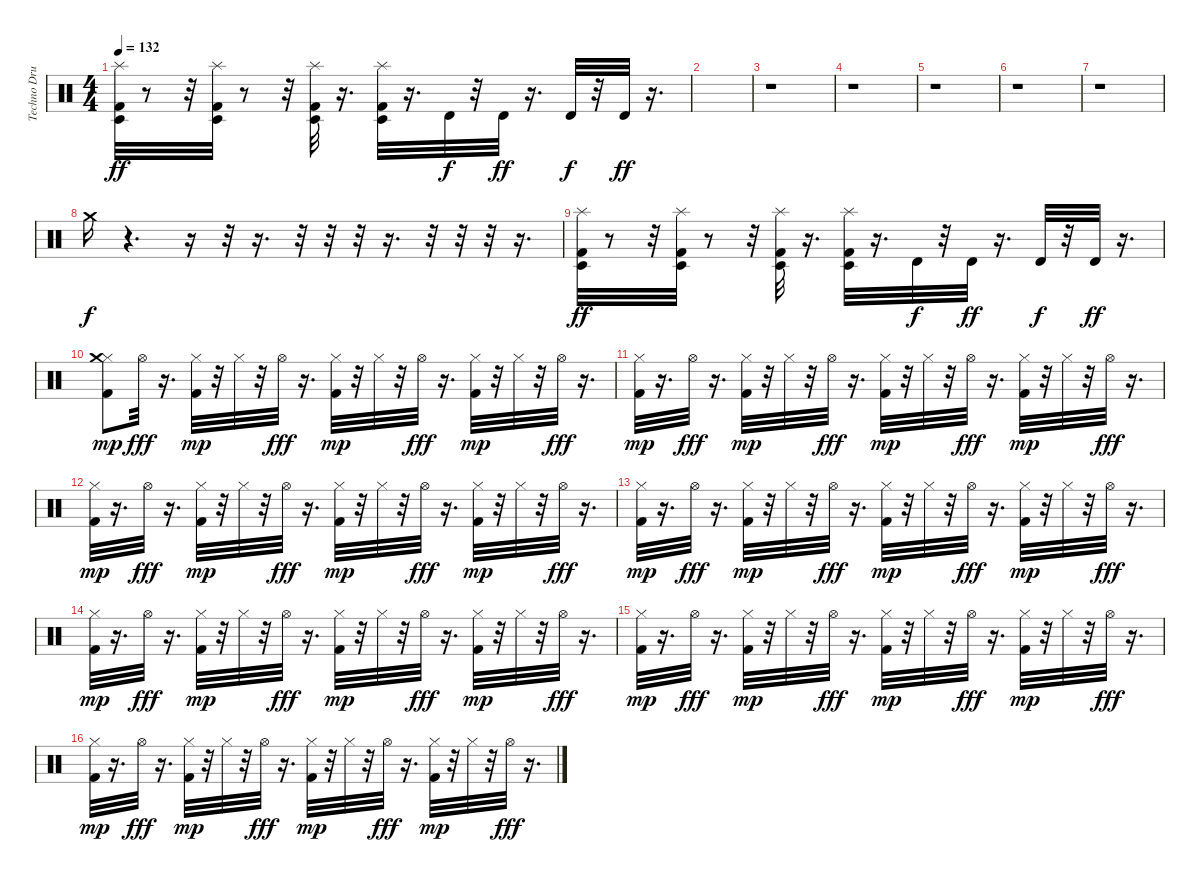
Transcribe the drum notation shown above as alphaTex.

\track ("Techno Drums" "Techno Dru") {instrument percussion}
\staff {score}
\articulation defaults
\ts (4 4)
\tempo 132
\clef neutral
\ks c
("Kick (hit) 2" "Timbale low (hit)" "Splash (hit)").32{dy ff} r.8 r.32 ("Kick (hit) 2" "Timbale low (hit)" "Splash (hit)").32 r.8 r.32 ("Kick (hit) 2" "Timbale low (hit)" "Splash (hit)").32 r.16{d} ("Timbale low (hit)" "Splash (hit)" "Kick (hit) 2").32 r.16{d} "Timbale high (hit)".32{dy f} r.32 "Timbale high (hit)".32{dy ff} r.16{d} "Timbale high (hit)".32{dy f} r.32 "Timbale high (hit)".32{dy ff} r.16{d} |
|
r.1 |
r.1 |
r.1 |
r.1 |
r.1 |
"Crash medium (hit)".16{dy f} r.4{d} r.16 r.32 r.16{d} r.32 r.32 r.32 r.16{d} r.32 r.32 r.32 r.16{d} |
("Kick (hit) 2" "Timbale low (hit)" "Splash (hit)").32{dy ff} r.8 r.32 ("Kick (hit) 2" "Timbale low (hit)" "Splash (hit)").32 r.8 r.32 ("Kick (hit) 2" "Timbale low (hit)" "Splash (hit)").32 r.16{d} ("Timbale low (hit)" "Splash (hit)" "Kick (hit) 2").32 r.16{d} "Timbale high (hit)".32{dy f} r.32 "Timbale high (hit)".32{dy ff} r.16{d} "Timbale high (hit)".32{dy f} r.32 "Timbale high (hit)".32{dy ff} r.16{d} |
("Kick (hit) 2" "Hi-Hat (closed)" "Crash medium (hit)").8{dy mp} "Hi-Hat (open)".32{dy fff} r.16{d} ("Kick (hit) 2" "Hi-Hat (closed)").32{dy mp} r.32 "Hi-Hat (closed)".32 r.32 "Hi-Hat (open)".32{dy fff} r.16{d} ("Kick (hit) 2" "Hi-Hat (closed)").32{dy mp} r.32 "Hi-Hat (closed)".32 r.32 "Hi-Hat (open)".32{dy fff} r.16{d} ("Kick (hit) 2" "Hi-Hat (closed)").32{dy mp} r.32 "Hi-Hat (closed)".32 r.32 "Hi-Hat (open)".32{dy fff} r.16{d} |
("Kick (hit) 2" "Hi-Hat (closed)").32{dy mp} r.16{d} "Hi-Hat (open)".32{dy fff} r.16{d} ("Kick (hit) 2" "Hi-Hat (closed)").32{dy mp} r.32 "Hi-Hat (closed)".32 r.32 "Hi-Hat (open)".32{dy fff} r.16{d} ("Kick (hit) 2" "Hi-Hat (closed)").32{dy mp} r.32 "Hi-Hat (closed)".32 r.32 "Hi-Hat (open)".32{dy fff} r.16{d} ("Kick (hit) 2" "Hi-Hat (closed)").32{dy mp} r.32 "Hi-Hat (closed)".32 r.32 "Hi-Hat (open)".32{dy fff} r.16{d} |
("Kick (hit) 2" "Hi-Hat (closed)").32{dy mp} r.16{d} "Hi-Hat (open)".32{dy fff} r.16{d} ("Kick (hit) 2" "Hi-Hat (closed)").32{dy mp} r.32 "Hi-Hat (closed)".32 r.32 "Hi-Hat (open)".32{dy fff} r.16{d} ("Kick (hit) 2" "Hi-Hat (closed)").32{dy mp} r.32 "Hi-Hat (closed)".32 r.32 "Hi-Hat (open)".32{dy fff} r.16{d} ("Kick (hit) 2" "Hi-Hat (closed)").32{dy mp} r.32 "Hi-Hat (closed)".32 r.32 "Hi-Hat (open)".32{dy fff} r.16{d} |
("Kick (hit) 2" "Hi-Hat (closed)").32{dy mp} r.16{d} "Hi-Hat (open)".32{dy fff} r.16{d} ("Kick (hit) 2" "Hi-Hat (closed)").32{dy mp} r.32 "Hi-Hat (closed)".32 r.32 "Hi-Hat (open)".32{dy fff} r.16{d} ("Kick (hit) 2" "Hi-Hat (closed)").32{dy mp} r.32 "Hi-Hat (closed)".32 r.32 "Hi-Hat (open)".32{dy fff} r.16{d} ("Kick (hit) 2" "Hi-Hat (closed)").32{dy mp} r.32 "Hi-Hat (closed)".32 r.32 "Hi-Hat (open)".32{dy fff} r.16{d} |
("Kick (hit) 2" "Hi-Hat (closed)").32{dy mp} r.16{d} "Hi-Hat (open)".32{dy fff} r.16{d} ("Kick (hit) 2" "Hi-Hat (closed)").32{dy mp} r.32 "Hi-Hat (closed)".32 r.32 "Hi-Hat (open)".32{dy fff} r.16{d} ("Kick (hit) 2" "Hi-Hat (closed)").32{dy mp} r.32 "Hi-Hat (closed)".32 r.32 "Hi-Hat (open)".32{dy fff} r.16{d} ("Kick (hit) 2" "Hi-Hat (closed)").32{dy mp} r.32 "Hi-Hat (closed)".32 r.32 "Hi-Hat (open)".32{dy fff} r.16{d} |
("Kick (hit) 2" "Hi-Hat (closed)").32{dy mp} r.16{d} "Hi-Hat (open)".32{dy fff} r.16{d} ("Kick (hit) 2" "Hi-Hat (closed)").32{dy mp} r.32 "Hi-Hat (closed)".32 r.32 "Hi-Hat (open)".32{dy fff} r.16{d} ("Kick (hit) 2" "Hi-Hat (closed)").32{dy mp} r.32 "Hi-Hat (closed)".32 r.32 "Hi-Hat (open)".32{dy fff} r.16{d} ("Kick (hit) 2" "Hi-Hat (closed)").32{dy mp} r.32 "Hi-Hat (closed)".32 r.32 "Hi-Hat (open)".32{dy fff} r.16{d} |
("Kick (hit) 2" "Hi-Hat (closed)").32{dy mp} r.16{d} "Hi-Hat (open)".32{dy fff} r.16{d} ("Kick (hit) 2" "Hi-Hat (closed)").32{dy mp} r.32 "Hi-Hat (closed)".32 r.32 "Hi-Hat (open)".32{dy fff} r.16{d} ("Kick (hit) 2" "Hi-Hat (closed)").32{dy mp} r.32 "Hi-Hat (closed)".32 r.32 "Hi-Hat (open)".32{dy fff} r.16{d} ("Kick (hit) 2" "Hi-Hat (closed)").32{dy mp} r.32 "Hi-Hat (closed)".32 r.32 "Hi-Hat (open)".32{dy fff} r.16{d}
